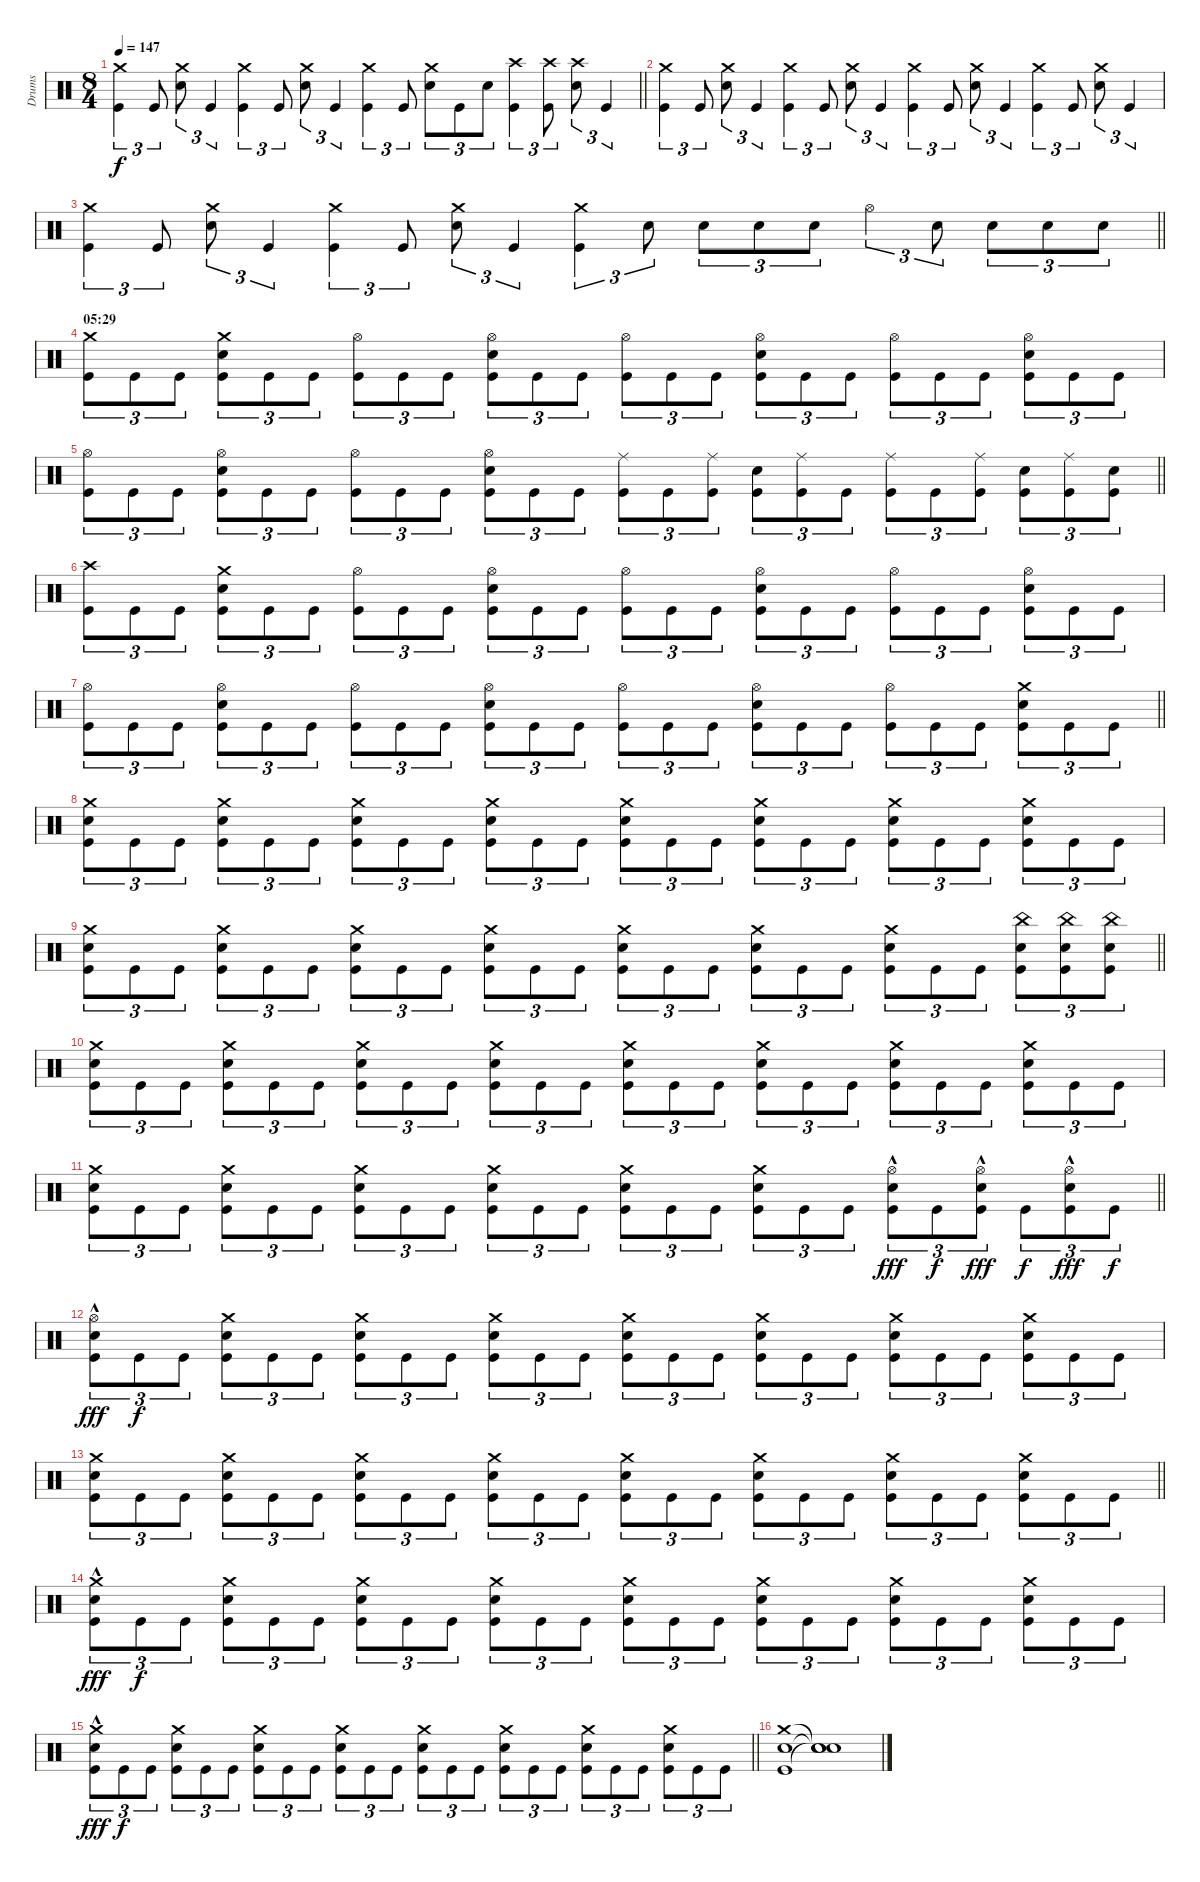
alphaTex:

\track ("Drums" "Drums") {instrument percussion}
\staff {score}
\articulation defaults
\ts (8 4)
\tempo 147
\clef neutral
\barLineRight lightlight
\ks c
("Crash medium (hit)" "Kick (hit)").4{tu (3 2) dy f} "Kick (hit)".8{tu (3 2)} ("Crash medium (hit)" "Electric Snare (hit)").8{tu (3 2)} "Kick (hit)".4{tu (3 2)} ("Crash medium (hit)" "Kick (hit)").4{tu (3 2)} "Kick (hit)".8{tu (3 2)} ("Crash medium (hit)" "Electric Snare (hit)").8{tu (3 2)} "Kick (hit)".4{tu (3 2)} ("Crash medium (hit)" "Kick (hit)").4{tu (3 2)} "Kick (hit)".8{tu (3 2)} ("Crash medium (hit)" "Electric Snare (hit)").8{tu (3 2)} "Kick (hit)".8{tu (3 2)} "Electric Snare (hit)".8{tu (3 2)} ("Crash high (hit)" "Kick (hit)").4{tu (3 2)} ("Crash high (hit)" "Kick (hit)").8{tu (3 2)} ("Crash high (hit)" "Electric Snare (hit)").8{tu (3 2)} "Kick (hit)".4{tu (3 2)} |
("Crash medium (hit)" "Kick (hit)").4{tu (3 2)} "Kick (hit)".8{tu (3 2)} ("Crash medium (hit)" "Electric Snare (hit)").8{tu (3 2)} "Kick (hit)".4{tu (3 2)} ("Crash medium (hit)" "Kick (hit)").4{tu (3 2)} "Kick (hit)".8{tu (3 2)} ("Crash medium (hit)" "Electric Snare (hit)").8{tu (3 2)} "Kick (hit)".4{tu (3 2)} ("Crash medium (hit)" "Kick (hit)").4{tu (3 2)} "Kick (hit)".8{tu (3 2)} ("Crash medium (hit)" "Electric Snare (hit)").8{tu (3 2)} "Kick (hit)".4{tu (3 2)} ("Crash medium (hit)" "Kick (hit)").4{tu (3 2)} "Kick (hit)".8{tu (3 2)} ("Crash medium (hit)" "Electric Snare (hit)").8{tu (3 2)} "Kick (hit)".4{tu (3 2)} |
\barLineRight lightlight
("Crash medium (hit)" "Kick (hit)").4{tu (3 2)} "Kick (hit)".8{tu (3 2)} ("Crash medium (hit)" "Electric Snare (hit)").8{tu (3 2)} "Kick (hit)".4{tu (3 2)} ("Crash medium (hit)" "Kick (hit)").4{tu (3 2)} "Kick (hit)".8{tu (3 2)} ("Crash medium (hit)" "Electric Snare (hit)").8{tu (3 2)} "Kick (hit)".4{tu (3 2)} ("Crash medium (hit)" "Kick (hit)").4{tu (3 2)} "Electric Snare (hit)".8{tu (3 2)} "Electric Snare (hit)".8{tu (3 2)} "Electric Snare (hit)".8{tu (3 2)} "Electric Snare (hit)".8{tu (3 2)} "Hi-Hat (open)".4{tu (3 2)} "Electric Snare (hit)".8{tu (3 2)} "Electric Snare (hit)".8{tu (3 2)} "Electric Snare (hit)".8{tu (3 2)} "Electric Snare (hit)".8{tu (3 2)} |
\section ("" "05:29")
("Crash medium (hit)" "Kick (hit)").8{tu (3 2)} "Kick (hit)".8{tu (3 2)} "Kick (hit)".8{tu (3 2)} ("Crash medium (hit)" "Electric Snare (hit)" "Kick (hit)").8{tu (3 2)} "Kick (hit)".8{tu (3 2)} "Kick (hit)".8{tu (3 2)} ("Hi-Hat (open)" "Kick (hit)").8{tu (3 2)} "Kick (hit)".8{tu (3 2)} "Kick (hit)".8{tu (3 2)} ("Hi-Hat (open)" "Electric Snare (hit)" "Kick (hit)").8{tu (3 2)} "Kick (hit)".8{tu (3 2)} "Kick (hit)".8{tu (3 2)} ("Hi-Hat (open)" "Kick (hit)").8{tu (3 2)} "Kick (hit)".8{tu (3 2)} "Kick (hit)".8{tu (3 2)} ("Hi-Hat (open)" "Electric Snare (hit)" "Kick (hit)").8{tu (3 2)} "Kick (hit)".8{tu (3 2)} "Kick (hit)".8{tu (3 2)} ("Hi-Hat (open)" "Kick (hit)").8{tu (3 2)} "Kick (hit)".8{tu (3 2)} "Kick (hit)".8{tu (3 2)} ("Hi-Hat (open)" "Electric Snare (hit)" "Kick (hit)").8{tu (3 2)} "Kick (hit)".8{tu (3 2)} "Kick (hit)".8{tu (3 2)} |
\barLineRight lightlight
("Hi-Hat (open)" "Kick (hit)").8{tu (3 2)} "Kick (hit)".8{tu (3 2)} "Kick (hit)".8{tu (3 2)} ("Hi-Hat (open)" "Electric Snare (hit)" "Kick (hit)").8{tu (3 2)} "Kick (hit)".8{tu (3 2)} "Kick (hit)".8{tu (3 2)} ("Hi-Hat (open)" "Kick (hit)").8{tu (3 2)} "Kick (hit)".8{tu (3 2)} "Kick (hit)".8{tu (3 2)} ("Hi-Hat (open)" "Electric Snare (hit)" "Kick (hit)").8{tu (3 2)} "Kick (hit)".8{tu (3 2)} "Kick (hit)".8{tu (3 2)} ("Ride (middle)" "Kick (hit)").8{tu (3 2)} "Kick (hit)".8{tu (3 2)} ("Ride (middle)" "Kick (hit)").8{tu (3 2)} ("Electric Snare (hit)" "Kick (hit)").8{tu (3 2)} ("Ride (middle)" "Kick (hit)").8{tu (3 2)} "Kick (hit)".8{tu (3 2)} ("Ride (middle)" "Kick (hit)").8{tu (3 2)} "Kick (hit)".8{tu (3 2)} ("Ride (middle)" "Kick (hit)").8{tu (3 2)} ("Electric Snare (hit)" "Kick (hit)").8{tu (3 2)} ("Ride (middle)" "Kick (hit)").8{tu (3 2)} ("Electric Snare (hit)" "Kick (hit)").8{tu (3 2)} |
("Crash high (hit)" "Kick (hit)").8{tu (3 2)} "Kick (hit)".8{tu (3 2)} "Kick (hit)".8{tu (3 2)} ("Crash medium (hit)" "Electric Snare (hit)" "Kick (hit)").8{tu (3 2)} "Kick (hit)".8{tu (3 2)} "Kick (hit)".8{tu (3 2)} ("Hi-Hat (open)" "Kick (hit)").8{tu (3 2)} "Kick (hit)".8{tu (3 2)} "Kick (hit)".8{tu (3 2)} ("Hi-Hat (open)" "Electric Snare (hit)" "Kick (hit)").8{tu (3 2)} "Kick (hit)".8{tu (3 2)} "Kick (hit)".8{tu (3 2)} ("Hi-Hat (open)" "Kick (hit)").8{tu (3 2)} "Kick (hit)".8{tu (3 2)} "Kick (hit)".8{tu (3 2)} ("Hi-Hat (open)" "Electric Snare (hit)" "Kick (hit)").8{tu (3 2)} "Kick (hit)".8{tu (3 2)} "Kick (hit)".8{tu (3 2)} ("Hi-Hat (open)" "Kick (hit)").8{tu (3 2)} "Kick (hit)".8{tu (3 2)} "Kick (hit)".8{tu (3 2)} ("Hi-Hat (open)" "Electric Snare (hit)" "Kick (hit)").8{tu (3 2)} "Kick (hit)".8{tu (3 2)} "Kick (hit)".8{tu (3 2)} |
\barLineRight lightlight
("Hi-Hat (open)" "Kick (hit)").8{tu (3 2)} "Kick (hit)".8{tu (3 2)} "Kick (hit)".8{tu (3 2)} ("Hi-Hat (open)" "Electric Snare (hit)" "Kick (hit)").8{tu (3 2)} "Kick (hit)".8{tu (3 2)} "Kick (hit)".8{tu (3 2)} ("Hi-Hat (open)" "Kick (hit)").8{tu (3 2)} "Kick (hit)".8{tu (3 2)} "Kick (hit)".8{tu (3 2)} ("Hi-Hat (open)" "Electric Snare (hit)" "Kick (hit)").8{tu (3 2)} "Kick (hit)".8{tu (3 2)} "Kick (hit)".8{tu (3 2)} ("Hi-Hat (open)" "Kick (hit)").8{tu (3 2)} "Kick (hit)".8{tu (3 2)} "Kick (hit)".8{tu (3 2)} ("Hi-Hat (open)" "Electric Snare (hit)" "Kick (hit)").8{tu (3 2)} "Kick (hit)".8{tu (3 2)} "Kick (hit)".8{tu (3 2)} ("Hi-Hat (open)" "Kick (hit)").8{tu (3 2)} "Kick (hit)".8{tu (3 2)} "Kick (hit)".8{tu (3 2)} ("Crash medium (hit)" "Electric Snare (hit)" "Kick (hit)").8{tu (3 2)} "Kick (hit)".8{tu (3 2)} "Kick (hit)".8{tu (3 2)} |
("Crash medium (hit)" "Electric Snare (hit)" "Kick (hit)").8{tu (3 2)} "Kick (hit)".8{tu (3 2)} "Kick (hit)".8{tu (3 2)} ("Crash medium (hit)" "Electric Snare (hit)" "Kick (hit)").8{tu (3 2)} "Kick (hit)".8{tu (3 2)} "Kick (hit)".8{tu (3 2)} ("Crash medium (hit)" "Electric Snare (hit)" "Kick (hit)").8{tu (3 2)} "Kick (hit)".8{tu (3 2)} "Kick (hit)".8{tu (3 2)} ("Crash medium (hit)" "Electric Snare (hit)" "Kick (hit)").8{tu (3 2)} "Kick (hit)".8{tu (3 2)} "Kick (hit)".8{tu (3 2)} ("Crash medium (hit)" "Electric Snare (hit)" "Kick (hit)").8{tu (3 2)} "Kick (hit)".8{tu (3 2)} "Kick (hit)".8{tu (3 2)} ("Crash medium (hit)" "Electric Snare (hit)" "Kick (hit)").8{tu (3 2)} "Kick (hit)".8{tu (3 2)} "Kick (hit)".8{tu (3 2)} ("Crash medium (hit)" "Electric Snare (hit)" "Kick (hit)").8{tu (3 2)} "Kick (hit)".8{tu (3 2)} "Kick (hit)".8{tu (3 2)} ("Crash medium (hit)" "Electric Snare (hit)" "Kick (hit)").8{tu (3 2)} "Kick (hit)".8{tu (3 2)} "Kick (hit)".8{tu (3 2)} |
\barLineRight lightlight
("Crash medium (hit)" "Electric Snare (hit)" "Kick (hit)").8{tu (3 2)} "Kick (hit)".8{tu (3 2)} "Kick (hit)".8{tu (3 2)} ("Crash medium (hit)" "Electric Snare (hit)" "Kick (hit)").8{tu (3 2)} "Kick (hit)".8{tu (3 2)} "Kick (hit)".8{tu (3 2)} ("Crash medium (hit)" "Electric Snare (hit)" "Kick (hit)").8{tu (3 2)} "Kick (hit)".8{tu (3 2)} "Kick (hit)".8{tu (3 2)} ("Crash medium (hit)" "Electric Snare (hit)" "Kick (hit)").8{tu (3 2)} "Kick (hit)".8{tu (3 2)} "Kick (hit)".8{tu (3 2)} ("Crash medium (hit)" "Electric Snare (hit)" "Kick (hit)").8{tu (3 2)} "Kick (hit)".8{tu (3 2)} "Kick (hit)".8{tu (3 2)} ("Crash medium (hit)" "Electric Snare (hit)" "Kick (hit)").8{tu (3 2)} "Kick (hit)".8{tu (3 2)} "Kick (hit)".8{tu (3 2)} ("Crash medium (hit)" "Electric Snare (hit)" "Kick (hit)").8{tu (3 2)} "Kick (hit)".8{tu (3 2)} "Kick (hit)".8{tu (3 2)} ("China (hit)" "Electric Snare (hit)" "Kick (hit)").8{tu (3 2)} ("China (hit)" "Electric Snare (hit)" "Kick (hit)").8{tu (3 2)} ("China (hit)" "Electric Snare (hit)" "Kick (hit)").8{tu (3 2)} |
("Crash medium (hit)" "Electric Snare (hit)" "Kick (hit)").8{tu (3 2)} "Kick (hit)".8{tu (3 2)} "Kick (hit)".8{tu (3 2)} ("Crash medium (hit)" "Electric Snare (hit)" "Kick (hit)").8{tu (3 2)} "Kick (hit)".8{tu (3 2)} "Kick (hit)".8{tu (3 2)} ("Crash medium (hit)" "Electric Snare (hit)" "Kick (hit)").8{tu (3 2)} "Kick (hit)".8{tu (3 2)} "Kick (hit)".8{tu (3 2)} ("Crash medium (hit)" "Electric Snare (hit)" "Kick (hit)").8{tu (3 2)} "Kick (hit)".8{tu (3 2)} "Kick (hit)".8{tu (3 2)} ("Crash medium (hit)" "Electric Snare (hit)" "Kick (hit)").8{tu (3 2)} "Kick (hit)".8{tu (3 2)} "Kick (hit)".8{tu (3 2)} ("Crash medium (hit)" "Electric Snare (hit)" "Kick (hit)").8{tu (3 2)} "Kick (hit)".8{tu (3 2)} "Kick (hit)".8{tu (3 2)} ("Crash medium (hit)" "Electric Snare (hit)" "Kick (hit)").8{tu (3 2)} "Kick (hit)".8{tu (3 2)} "Kick (hit)".8{tu (3 2)} ("Crash medium (hit)" "Electric Snare (hit)" "Kick (hit)").8{tu (3 2)} "Kick (hit)".8{tu (3 2)} "Kick (hit)".8{tu (3 2)} |
\barLineRight lightlight
("Crash medium (hit)" "Electric Snare (hit)" "Kick (hit)").8{tu (3 2)} "Kick (hit)".8{tu (3 2)} "Kick (hit)".8{tu (3 2)} ("Crash medium (hit)" "Electric Snare (hit)" "Kick (hit)").8{tu (3 2)} "Kick (hit)".8{tu (3 2)} "Kick (hit)".8{tu (3 2)} ("Crash medium (hit)" "Electric Snare (hit)" "Kick (hit)").8{tu (3 2)} "Kick (hit)".8{tu (3 2)} "Kick (hit)".8{tu (3 2)} ("Crash medium (hit)" "Electric Snare (hit)" "Kick (hit)").8{tu (3 2)} "Kick (hit)".8{tu (3 2)} "Kick (hit)".8{tu (3 2)} ("Crash medium (hit)" "Electric Snare (hit)" "Kick (hit)").8{tu (3 2)} "Kick (hit)".8{tu (3 2)} "Kick (hit)".8{tu (3 2)} ("Crash medium (hit)" "Electric Snare (hit)" "Kick (hit)").8{tu (3 2)} "Kick (hit)".8{tu (3 2)} "Kick (hit)".8{tu (3 2)} ("Hi-Hat (open)"{hac} "Electric Snare (hit)" "Kick (hit)").8{tu (3 2) dy fff} "Kick (hit)".8{tu (3 2) dy f} ("Hi-Hat (open)"{hac} "Electric Snare (hit)" "Kick (hit)").8{tu (3 2) dy fff} "Kick (hit)".8{tu (3 2) dy f} ("Hi-Hat (open)"{hac} "Electric Snare (hit)" "Kick (hit)").8{tu (3 2) dy fff} "Kick (hit)".8{tu (3 2) dy f} |
("Hi-Hat (open)"{hac} "Electric Snare (hit)" "Kick (hit)").8{tu (3 2) dy fff} "Kick (hit)".8{tu (3 2) dy f} "Kick (hit)".8{tu (3 2)} ("Crash medium (hit)" "Electric Snare (hit)" "Kick (hit)").8{tu (3 2)} "Kick (hit)".8{tu (3 2)} "Kick (hit)".8{tu (3 2)} ("Crash medium (hit)" "Electric Snare (hit)" "Kick (hit)").8{tu (3 2)} "Kick (hit)".8{tu (3 2)} "Kick (hit)".8{tu (3 2)} ("Crash medium (hit)" "Electric Snare (hit)" "Kick (hit)").8{tu (3 2)} "Kick (hit)".8{tu (3 2)} "Kick (hit)".8{tu (3 2)} ("Crash medium (hit)" "Electric Snare (hit)" "Kick (hit)").8{tu (3 2)} "Kick (hit)".8{tu (3 2)} "Kick (hit)".8{tu (3 2)} ("Crash medium (hit)" "Electric Snare (hit)" "Kick (hit)").8{tu (3 2)} "Kick (hit)".8{tu (3 2)} "Kick (hit)".8{tu (3 2)} ("Crash medium (hit)" "Electric Snare (hit)" "Kick (hit)").8{tu (3 2)} "Kick (hit)".8{tu (3 2)} "Kick (hit)".8{tu (3 2)} ("Crash medium (hit)" "Electric Snare (hit)" "Kick (hit)").8{tu (3 2)} "Kick (hit)".8{tu (3 2)} "Kick (hit)".8{tu (3 2)} |
\barLineRight lightlight
("Crash medium (hit)" "Electric Snare (hit)" "Kick (hit)").8{tu (3 2)} "Kick (hit)".8{tu (3 2)} "Kick (hit)".8{tu (3 2)} ("Crash medium (hit)" "Electric Snare (hit)" "Kick (hit)").8{tu (3 2)} "Kick (hit)".8{tu (3 2)} "Kick (hit)".8{tu (3 2)} ("Crash medium (hit)" "Electric Snare (hit)" "Kick (hit)").8{tu (3 2)} "Kick (hit)".8{tu (3 2)} "Kick (hit)".8{tu (3 2)} ("Crash medium (hit)" "Electric Snare (hit)" "Kick (hit)").8{tu (3 2)} "Kick (hit)".8{tu (3 2)} "Kick (hit)".8{tu (3 2)} ("Crash medium (hit)" "Electric Snare (hit)" "Kick (hit)").8{tu (3 2)} "Kick (hit)".8{tu (3 2)} "Kick (hit)".8{tu (3 2)} ("Crash medium (hit)" "Electric Snare (hit)" "Kick (hit)").8{tu (3 2)} "Kick (hit)".8{tu (3 2)} "Kick (hit)".8{tu (3 2)} ("Crash medium (hit)" "Electric Snare (hit)" "Kick (hit)").8{tu (3 2)} "Kick (hit)".8{tu (3 2)} "Kick (hit)".8{tu (3 2)} ("Crash medium (hit)" "Electric Snare (hit)" "Kick (hit)").8{tu (3 2)} "Kick (hit)".8{tu (3 2)} "Kick (hit)".8{tu (3 2)} |
("Crash medium (hit)"{hac} "Electric Snare (hit)" "Kick (hit)").8{tu (3 2) dy fff} "Kick (hit)".8{tu (3 2) dy f} "Kick (hit)".8{tu (3 2)} ("Crash medium (hit)" "Electric Snare (hit)" "Kick (hit)").8{tu (3 2)} "Kick (hit)".8{tu (3 2)} "Kick (hit)".8{tu (3 2)} ("Crash medium (hit)" "Electric Snare (hit)" "Kick (hit)").8{tu (3 2)} "Kick (hit)".8{tu (3 2)} "Kick (hit)".8{tu (3 2)} ("Crash medium (hit)" "Electric Snare (hit)" "Kick (hit)").8{tu (3 2)} "Kick (hit)".8{tu (3 2)} "Kick (hit)".8{tu (3 2)} ("Crash medium (hit)" "Electric Snare (hit)" "Kick (hit)").8{tu (3 2)} "Kick (hit)".8{tu (3 2)} "Kick (hit)".8{tu (3 2)} ("Crash medium (hit)" "Electric Snare (hit)" "Kick (hit)").8{tu (3 2)} "Kick (hit)".8{tu (3 2)} "Kick (hit)".8{tu (3 2)} ("Crash medium (hit)" "Electric Snare (hit)" "Kick (hit)").8{tu (3 2)} "Kick (hit)".8{tu (3 2)} "Kick (hit)".8{tu (3 2)} ("Crash medium (hit)" "Electric Snare (hit)" "Kick (hit)").8{tu (3 2)} "Kick (hit)".8{tu (3 2)} "Kick (hit)".8{tu (3 2)} |
\barLineRight lightlight
("Crash medium (hit)"{hac} "Electric Snare (hit)" "Kick (hit)").8{tu (3 2) dy fff} "Kick (hit)".8{tu (3 2) dy f} "Kick (hit)".8{tu (3 2)} ("Crash medium (hit)" "Electric Snare (hit)" "Kick (hit)").8{tu (3 2)} "Kick (hit)".8{tu (3 2)} "Kick (hit)".8{tu (3 2)} ("Crash medium (hit)" "Electric Snare (hit)" "Kick (hit)").8{tu (3 2)} "Kick (hit)".8{tu (3 2)} "Kick (hit)".8{tu (3 2)} ("Crash medium (hit)" "Electric Snare (hit)" "Kick (hit)").8{tu (3 2)} "Kick (hit)".8{tu (3 2)} "Kick (hit)".8{tu (3 2)} ("Crash medium (hit)" "Electric Snare (hit)" "Kick (hit)").8{tu (3 2)} "Kick (hit)".8{tu (3 2)} "Kick (hit)".8{tu (3 2)} ("Crash medium (hit)" "Electric Snare (hit)" "Kick (hit)").8{tu (3 2)} "Kick (hit)".8{tu (3 2)} "Kick (hit)".8{tu (3 2)} ("Crash medium (hit)" "Electric Snare (hit)" "Kick (hit)").8{tu (3 2)} "Kick (hit)".8{tu (3 2)} "Kick (hit)".8{tu (3 2)} ("Crash medium (hit)" "Electric Snare (hit)" "Kick (hit)").8{tu (3 2)} "Kick (hit)".8{tu (3 2)} "Kick (hit)".8{tu (3 2)} |
("Crash medium (hit)" "Electric Snare (hit)" "Kick (hit)").1 ("Snare (hit)"{t} "Snare (hit)"{t} "Snare (hit)"{t}).1
